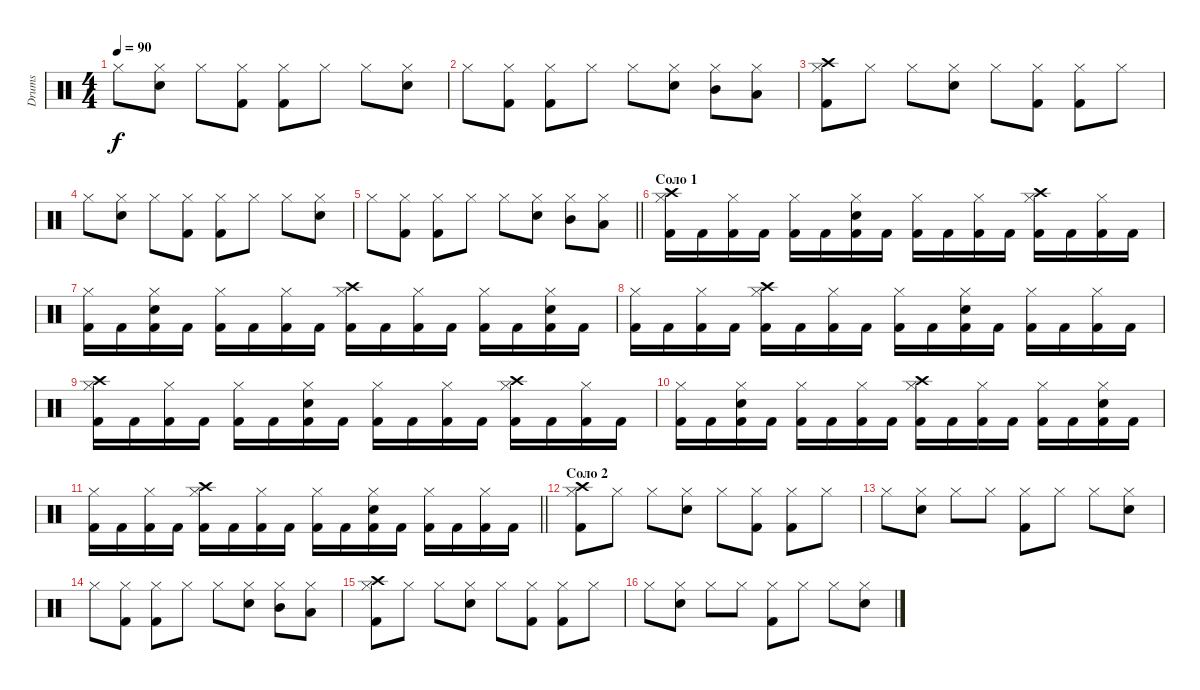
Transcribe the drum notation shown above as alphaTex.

\track ("Drums" "Drums") {instrument percussion}
\staff {score}
\articulation defaults
\ts (4 4)
\tempo 90
\clef neutral
\ks c "Hi-Hat (closed)".8{dy f}
("Hi-Hat (closed)" "Electric Snare (hit)").8 "Hi-Hat (closed)".8 ("Hi-Hat (closed)" "Kick (hit) 2").8 ("Hi-Hat (closed)" "Kick (hit) 2").8 "Hi-Hat (closed)".8 "Hi-Hat (closed)".8 ("Hi-Hat (closed)" "Electric Snare (hit)").8 |
"Hi-Hat (closed)".8 ("Hi-Hat (closed)" "Kick (hit) 2").8 ("Hi-Hat (closed)" "Kick (hit) 2").8 "Hi-Hat (closed)".8 "Hi-Hat (closed)".8 ("Hi-Hat (closed)" "Electric Snare (hit)").8 ("Hi-Hat (closed)" "Mid Tom (hit)").8 ("Hi-Hat (closed)" "Low Tom (hit)").8 |
("Hi-Hat (closed)" "Kick (hit) 2" "Crash high (hit)").8 "Hi-Hat (closed)".8 "Hi-Hat (closed)".8 ("Hi-Hat (closed)" "Electric Snare (hit)").8 "Hi-Hat (closed)".8 ("Hi-Hat (closed)" "Kick (hit) 2").8 ("Hi-Hat (closed)" "Kick (hit) 2").8 "Hi-Hat (closed)".8 |
"Hi-Hat (closed)".8 ("Hi-Hat (closed)" "Electric Snare (hit)").8 "Hi-Hat (closed)".8 ("Hi-Hat (closed)" "Kick (hit) 2").8 ("Hi-Hat (closed)" "Kick (hit) 2").8 "Hi-Hat (closed)".8 "Hi-Hat (closed)".8 ("Hi-Hat (closed)" "Electric Snare (hit)").8 |
\barLineRight lightlight "Hi-Hat (closed)".8
("Hi-Hat (closed)" "Kick (hit) 2").8 ("Hi-Hat (closed)" "Kick (hit) 2").8 "Hi-Hat (closed)".8 "Hi-Hat (closed)".8 ("Hi-Hat (closed)" "Electric Snare (hit)").8 ("Hi-Hat (closed)" "Mid Tom (hit)").8 ("Hi-Hat (closed)" "Low Tom (hit)").8 |
\section ("" "Соло 1")
("Kick (hit) 2" "Crash high (hit)" "Hi-Hat (closed)").16 "Kick (hit) 2".16 ("Kick (hit) 2" "Hi-Hat (closed)").16 "Kick (hit) 2".16 ("Kick (hit) 2" "Hi-Hat (closed)").16 "Kick (hit) 2".16 ("Kick (hit) 2" "Electric Snare (hit)" "Hi-Hat (closed)").16 "Kick (hit) 2".16 ("Kick (hit) 2" "Hi-Hat (closed)").16 "Kick (hit) 2".16 ("Kick (hit) 2" "Hi-Hat (closed)").16 "Kick (hit) 2".16 ("Kick (hit) 2" "Crash high (hit)" "Hi-Hat (closed)").16 "Kick (hit) 2".16 ("Kick (hit) 2" "Hi-Hat (closed)").16 "Kick (hit) 2".16 |
("Kick (hit) 2" "Hi-Hat (closed)").16 "Kick (hit) 2".16 ("Kick (hit) 2" "Electric Snare (hit)" "Hi-Hat (closed)").16 "Kick (hit) 2".16 ("Kick (hit) 2" "Hi-Hat (closed)").16 "Kick (hit) 2".16 ("Kick (hit) 2" "Hi-Hat (closed)").16 "Kick (hit) 2".16 ("Kick (hit) 2" "Crash high (hit)" "Hi-Hat (closed)").16 "Kick (hit) 2".16 ("Kick (hit) 2" "Hi-Hat (closed)").16 "Kick (hit) 2".16 ("Kick (hit) 2" "Hi-Hat (closed)").16 "Kick (hit) 2".16 ("Kick (hit) 2" "Electric Snare (hit)" "Hi-Hat (closed)").16 "Kick (hit) 2".16 |
("Kick (hit) 2" "Hi-Hat (closed)").16 "Kick (hit) 2".16 ("Kick (hit) 2" "Hi-Hat (closed)").16 "Kick (hit) 2".16 ("Kick (hit) 2" "Crash high (hit)" "Hi-Hat (closed)").16 "Kick (hit) 2".16 ("Kick (hit) 2" "Hi-Hat (closed)").16 "Kick (hit) 2".16 ("Kick (hit) 2" "Hi-Hat (closed)").16 "Kick (hit) 2".16 ("Kick (hit) 2" "Electric Snare (hit)" "Hi-Hat (closed)").16 "Kick (hit) 2".16 ("Kick (hit) 2" "Hi-Hat (closed)").16 "Kick (hit) 2".16 ("Kick (hit) 2" "Hi-Hat (closed)").16 "Kick (hit) 2".16 |
("Kick (hit) 2" "Crash high (hit)" "Hi-Hat (closed)").16 "Kick (hit) 2".16 ("Kick (hit) 2" "Hi-Hat (closed)").16 "Kick (hit) 2".16 ("Kick (hit) 2" "Hi-Hat (closed)").16 "Kick (hit) 2".16 ("Kick (hit) 2" "Electric Snare (hit)" "Hi-Hat (closed)").16 "Kick (hit) 2".16 ("Kick (hit) 2" "Hi-Hat (closed)").16 "Kick (hit) 2".16 ("Kick (hit) 2" "Hi-Hat (closed)").16 "Kick (hit) 2".16 ("Kick (hit) 2" "Crash high (hit)" "Hi-Hat (closed)").16 "Kick (hit) 2".16 ("Kick (hit) 2" "Hi-Hat (closed)").16 "Kick (hit) 2".16 |
("Kick (hit) 2" "Hi-Hat (closed)").16 "Kick (hit) 2".16 ("Kick (hit) 2" "Electric Snare (hit)" "Hi-Hat (closed)").16 "Kick (hit) 2".16 ("Kick (hit) 2" "Hi-Hat (closed)").16 "Kick (hit) 2".16 ("Kick (hit) 2" "Hi-Hat (closed)").16 "Kick (hit) 2".16 ("Kick (hit) 2" "Crash high (hit)" "Hi-Hat (closed)").16 "Kick (hit) 2".16 ("Kick (hit) 2" "Hi-Hat (closed)").16 "Kick (hit) 2".16 ("Kick (hit) 2" "Hi-Hat (closed)").16 "Kick (hit) 2".16 ("Kick (hit) 2" "Electric Snare (hit)" "Hi-Hat (closed)").16 "Kick (hit) 2".16 |
\barLineRight lightlight
("Kick (hit) 2" "Hi-Hat (closed)").16 "Kick (hit) 2".16 ("Kick (hit) 2" "Hi-Hat (closed)").16 "Kick (hit) 2".16 ("Kick (hit) 2" "Crash high (hit)" "Hi-Hat (closed)").16 "Kick (hit) 2".16 ("Kick (hit) 2" "Hi-Hat (closed)").16 "Kick (hit) 2".16 ("Kick (hit) 2" "Hi-Hat (closed)").16 "Kick (hit) 2".16 ("Kick (hit) 2" "Electric Snare (hit)" "Hi-Hat (closed)").16 "Kick (hit) 2".16 ("Kick (hit) 2" "Hi-Hat (closed)").16 "Kick (hit) 2".16 ("Kick (hit) 2" "Hi-Hat (closed)").16 "Kick (hit) 2".16 |
\section ("" "Соло 2")
("Hi-Hat (closed)" "Kick (hit) 2" "Crash high (hit)").8 "Hi-Hat (closed)".8 "Hi-Hat (closed)".8 ("Hi-Hat (closed)" "Electric Snare (hit)").8 "Hi-Hat (closed)".8 ("Hi-Hat (closed)" "Kick (hit) 2").8 ("Hi-Hat (closed)" "Kick (hit) 2").8 "Hi-Hat (closed)".8 |
"Hi-Hat (closed)".8 ("Hi-Hat (closed)" "Electric Snare (hit)").8 "Hi-Hat (closed)".8 "Hi-Hat (closed)".8 ("Hi-Hat (closed)" "Kick (hit) 2").8 "Hi-Hat (closed)".8 "Hi-Hat (closed)".8 ("Hi-Hat (closed)" "Electric Snare (hit)").8 |
"Hi-Hat (closed)".8 ("Hi-Hat (closed)" "Kick (hit) 2").8 ("Hi-Hat (closed)" "Kick (hit) 2").8 "Hi-Hat (closed)".8 "Hi-Hat (closed)".8 ("Hi-Hat (closed)" "Electric Snare (hit)").8 ("Hi-Hat (closed)" "Mid Tom (hit)").8 ("Hi-Hat (closed)" "Low Tom (hit)").8 |
("Hi-Hat (closed)" "Kick (hit) 2" "Crash high (hit)").8 "Hi-Hat (closed)".8 "Hi-Hat (closed)".8 ("Hi-Hat (closed)" "Electric Snare (hit)").8 "Hi-Hat (closed)".8 ("Hi-Hat (closed)" "Kick (hit) 2").8 ("Hi-Hat (closed)" "Kick (hit) 2").8 "Hi-Hat (closed)".8 |
"Hi-Hat (closed)".8 ("Hi-Hat (closed)" "Electric Snare (hit)").8 "Hi-Hat (closed)".8 "Hi-Hat (closed)".8 ("Hi-Hat (closed)" "Kick (hit) 2").8 "Hi-Hat (closed)".8 "Hi-Hat (closed)".8 ("Hi-Hat (closed)" "Electric Snare (hit)").8
